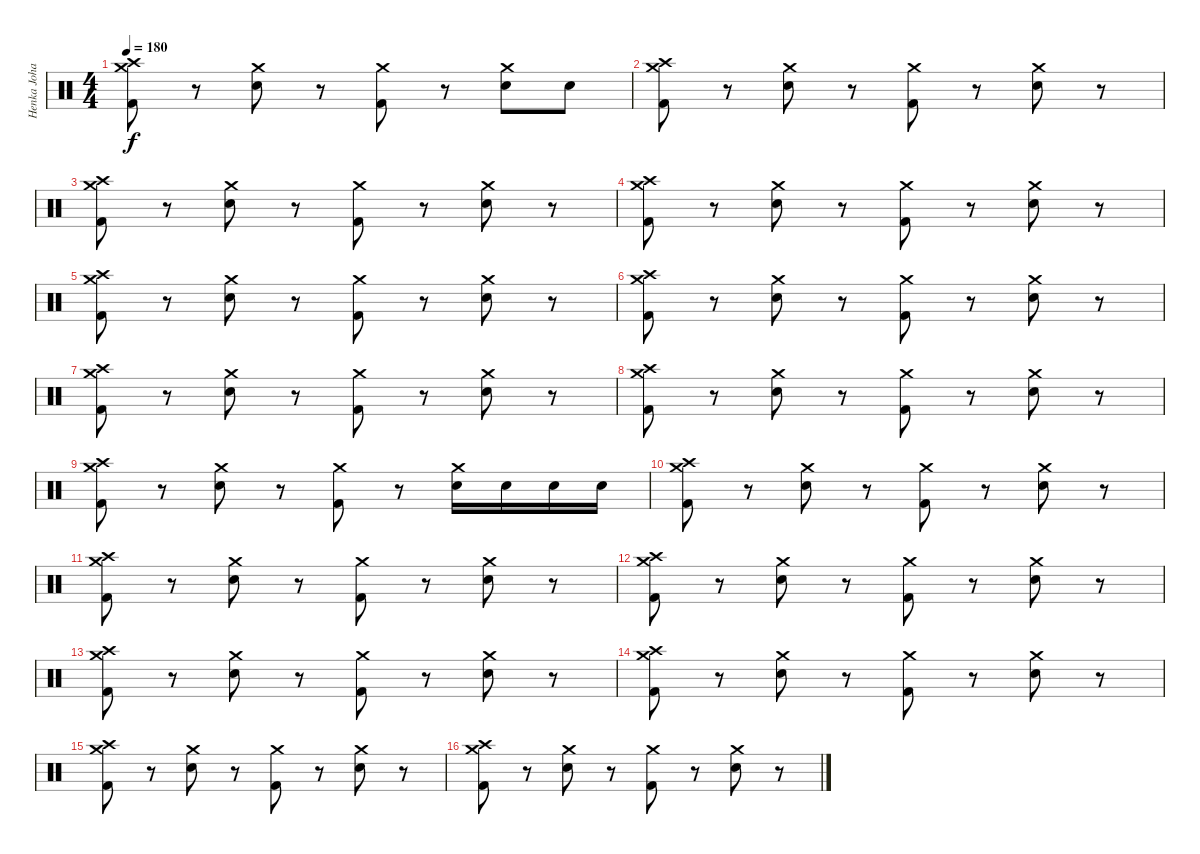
\track ("Henka Johansson" "Henka Joha") {instrument percussion}
\staff {score}
\articulation defaults
\ts (4 4)
\tempo 180
\clef neutral
\ks c
("Crash medium (hit)" "Crash high (hit)" "Kick (hit) 2").8{dy f} r.8 ("Crash medium (hit)" "Snare (hit) 2").8 r.8 ("Crash medium (hit)" "Kick (hit) 2").8 r.8 ("Crash medium (hit)" "Snare (hit) 2").8 "Snare (hit) 2".8 |
("Crash medium (hit)" "Crash high (hit)" "Kick (hit) 2").8 r.8 ("Crash medium (hit)" "Snare (hit) 2").8 r.8 ("Crash medium (hit)" "Kick (hit) 2").8 r.8 ("Crash medium (hit)" "Snare (hit) 2").8 r.8 |
("Crash medium (hit)" "Crash high (hit)" "Kick (hit) 2").8 r.8 ("Crash medium (hit)" "Snare (hit) 2").8 r.8 ("Crash medium (hit)" "Kick (hit) 2").8 r.8 ("Crash medium (hit)" "Snare (hit) 2").8 r.8 |
("Crash medium (hit)" "Crash high (hit)" "Kick (hit) 2").8 r.8 ("Crash medium (hit)" "Snare (hit) 2").8 r.8 ("Crash medium (hit)" "Kick (hit) 2").8 r.8 ("Crash medium (hit)" "Snare (hit) 2").8 r.8 |
("Crash medium (hit)" "Crash high (hit)" "Kick (hit) 2").8 r.8 ("Crash medium (hit)" "Snare (hit) 2").8 r.8 ("Crash medium (hit)" "Kick (hit) 2").8 r.8 ("Crash medium (hit)" "Snare (hit) 2").8 r.8 |
("Crash medium (hit)" "Crash high (hit)" "Kick (hit) 2").8 r.8 ("Crash medium (hit)" "Snare (hit) 2").8 r.8 ("Crash medium (hit)" "Kick (hit) 2").8 r.8 ("Crash medium (hit)" "Snare (hit) 2").8 r.8 |
("Crash medium (hit)" "Crash high (hit)" "Kick (hit) 2").8 r.8 ("Crash medium (hit)" "Snare (hit) 2").8 r.8 ("Crash medium (hit)" "Kick (hit) 2").8 r.8 ("Crash medium (hit)" "Snare (hit) 2").8 r.8 |
("Crash medium (hit)" "Crash high (hit)" "Kick (hit) 2").8 r.8 ("Crash medium (hit)" "Snare (hit) 2").8 r.8 ("Crash medium (hit)" "Kick (hit) 2").8 r.8 ("Crash medium (hit)" "Snare (hit) 2").8 r.8 |
("Crash medium (hit)" "Crash high (hit)" "Kick (hit) 2").8 r.8 ("Crash medium (hit)" "Snare (hit) 2").8 r.8 ("Crash medium (hit)" "Kick (hit) 2").8 r.8 ("Crash medium (hit)" "Snare (hit) 2").16 "Snare (hit) 2".16 "Snare (hit) 2".16 "Snare (hit) 2".16 |
("Crash medium (hit)" "Crash high (hit)" "Kick (hit) 2").8 r.8 ("Crash medium (hit)" "Snare (hit) 2").8 r.8 ("Crash medium (hit)" "Kick (hit) 2").8 r.8 ("Crash medium (hit)" "Snare (hit) 2").8 r.8 |
("Crash medium (hit)" "Crash high (hit)" "Kick (hit) 2").8 r.8 ("Crash medium (hit)" "Snare (hit) 2").8 r.8 ("Crash medium (hit)" "Kick (hit) 2").8 r.8 ("Crash medium (hit)" "Snare (hit) 2").8 r.8 |
("Crash medium (hit)" "Crash high (hit)" "Kick (hit) 2").8 r.8 ("Crash medium (hit)" "Snare (hit) 2").8 r.8 ("Crash medium (hit)" "Kick (hit) 2").8 r.8 ("Crash medium (hit)" "Snare (hit) 2").8 r.8 |
("Crash medium (hit)" "Crash high (hit)" "Kick (hit) 2").8 r.8 ("Crash medium (hit)" "Snare (hit) 2").8 r.8 ("Crash medium (hit)" "Kick (hit) 2").8 r.8 ("Crash medium (hit)" "Snare (hit) 2").8 r.8 |
("Crash medium (hit)" "Crash high (hit)" "Kick (hit) 2").8 r.8 ("Crash medium (hit)" "Snare (hit) 2").8 r.8 ("Crash medium (hit)" "Kick (hit) 2").8 r.8 ("Crash medium (hit)" "Snare (hit) 2").8 r.8 |
("Crash medium (hit)" "Crash high (hit)" "Kick (hit) 2").8 r.8 ("Crash medium (hit)" "Snare (hit) 2").8 r.8 ("Crash medium (hit)" "Kick (hit) 2").8 r.8 ("Crash medium (hit)" "Snare (hit) 2").8 r.8 |
("Crash medium (hit)" "Crash high (hit)" "Kick (hit) 2").8 r.8 ("Crash medium (hit)" "Snare (hit) 2").8 r.8 ("Crash medium (hit)" "Kick (hit) 2").8 r.8 ("Crash medium (hit)" "Snare (hit) 2").8 r.8
